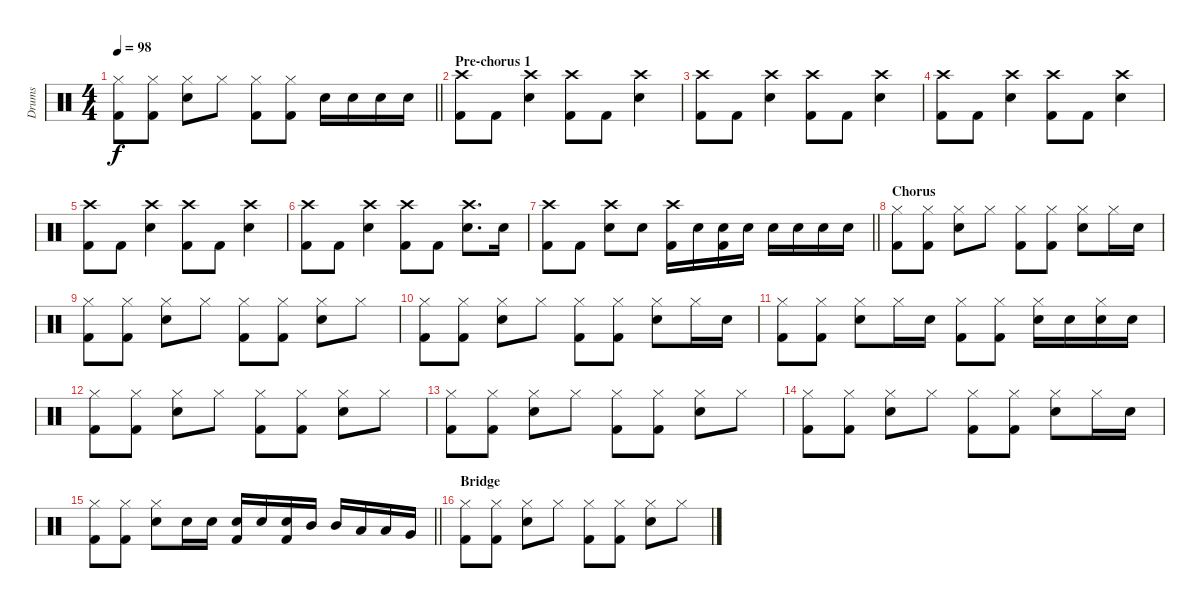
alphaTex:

\track ("Drums" "Drums") {instrument percussion}
\staff {score}
\articulation defaults
\ts (4 4)
\tempo 98
\clef neutral
\barLineRight lightlight
\ks c
("Hi-Hat (closed)" "Kick (hit) 2").8{dy f} ("Hi-Hat (closed)" "Kick (hit) 2").8 ("Hi-Hat (closed)" "Electric Snare (hit)").8 "Hi-Hat (closed)".8 ("Hi-Hat (closed)" "Kick (hit) 2").8 ("Hi-Hat (closed)" "Kick (hit) 2").8 "Electric Snare (hit)".16 "Electric Snare (hit)".16 "Electric Snare (hit)".16 "Electric Snare (hit)".16 |
\section ("" "Pre-chorus 1")
("Crash high (hit)" "Kick (hit) 2").8 "Kick (hit) 2".8 ("Crash high (hit)" "Electric Snare (hit)").4 ("Crash high (hit)" "Kick (hit) 2").8 "Kick (hit) 2".8 ("Crash high (hit)" "Electric Snare (hit)").4 |
("Crash high (hit)" "Kick (hit) 2").8 "Kick (hit) 2".8 ("Crash high (hit)" "Electric Snare (hit)").4 ("Crash high (hit)" "Kick (hit) 2").8 "Kick (hit) 2".8 ("Crash high (hit)" "Electric Snare (hit)").4 |
("Crash high (hit)" "Kick (hit) 2").8 "Kick (hit) 2".8 ("Crash high (hit)" "Electric Snare (hit)").4 ("Crash high (hit)" "Kick (hit) 2").8 "Kick (hit) 2".8 ("Crash high (hit)" "Electric Snare (hit)").4 |
("Crash high (hit)" "Kick (hit) 2").8 "Kick (hit) 2".8 ("Crash high (hit)" "Electric Snare (hit)").4 ("Crash high (hit)" "Kick (hit) 2").8 "Kick (hit) 2".8 ("Crash high (hit)" "Electric Snare (hit)").4 |
("Crash high (hit)" "Kick (hit) 2").8 "Kick (hit) 2".8 ("Crash high (hit)" "Electric Snare (hit)").4 ("Crash high (hit)" "Kick (hit) 2").8 "Kick (hit) 2".8 ("Crash high (hit)" "Electric Snare (hit)").8{d} "Electric Snare (hit)".16 |
\barLineRight lightlight
("Crash high (hit)" "Kick (hit) 2").8 "Kick (hit) 2".8 ("Crash high (hit)" "Electric Snare (hit)").8 "Electric Snare (hit)".8 ("Crash high (hit)" "Kick (hit) 2").16 "Electric Snare (hit)".16 ("Electric Snare (hit)" "Kick (hit) 2").16 "Electric Snare (hit)".16 "Electric Snare (hit)".16 "Electric Snare (hit)".16 "Electric Snare (hit)".16 "Electric Snare (hit)".16 |
\section ("" "Chorus")
("Hi-Hat (closed)" "Kick (hit) 2").8 ("Hi-Hat (closed)" "Kick (hit) 2").8 ("Hi-Hat (closed)" "Electric Snare (hit)").8 "Hi-Hat (closed)".8 ("Hi-Hat (closed)" "Kick (hit) 2").8 ("Hi-Hat (closed)" "Kick (hit) 2").8 ("Hi-Hat (closed)" "Electric Snare (hit)").8 "Hi-Hat (closed)".16 "Electric Snare (hit)".16 |
("Hi-Hat (closed)" "Kick (hit) 2").8 ("Hi-Hat (closed)" "Kick (hit) 2").8 ("Hi-Hat (closed)" "Electric Snare (hit)").8 "Hi-Hat (closed)".8 ("Hi-Hat (closed)" "Kick (hit) 2").8 ("Hi-Hat (closed)" "Kick (hit) 2").8 ("Hi-Hat (closed)" "Electric Snare (hit)").8 "Hi-Hat (closed)".8 |
("Hi-Hat (closed)" "Kick (hit) 2").8 ("Hi-Hat (closed)" "Kick (hit) 2").8 ("Hi-Hat (closed)" "Electric Snare (hit)").8 "Hi-Hat (closed)".8 ("Hi-Hat (closed)" "Kick (hit) 2").8 ("Hi-Hat (closed)" "Kick (hit) 2").8 ("Hi-Hat (closed)" "Electric Snare (hit)").8 "Hi-Hat (closed)".16 "Electric Snare (hit)".16 |
("Hi-Hat (closed)" "Kick (hit) 2").8 ("Hi-Hat (closed)" "Kick (hit) 2").8 ("Hi-Hat (closed)" "Electric Snare (hit)").8 "Hi-Hat (closed)".16 "Electric Snare (hit)".16 ("Hi-Hat (closed)" "Kick (hit) 2").8 ("Hi-Hat (closed)" "Kick (hit) 2").8 ("Hi-Hat (closed)" "Electric Snare (hit)").16 "Electric Snare (hit)".16 ("Hi-Hat (closed)" "Electric Snare (hit)").16 "Electric Snare (hit)".16 |
("Hi-Hat (closed)" "Kick (hit) 2").8 ("Hi-Hat (closed)" "Kick (hit) 2").8 ("Hi-Hat (closed)" "Electric Snare (hit)").8 "Hi-Hat (closed)".8 ("Hi-Hat (closed)" "Kick (hit) 2").8 ("Hi-Hat (closed)" "Kick (hit) 2").8 ("Hi-Hat (closed)" "Electric Snare (hit)").8 "Hi-Hat (closed)".8 |
("Hi-Hat (closed)" "Kick (hit) 2").8 ("Hi-Hat (closed)" "Kick (hit) 2").8 ("Hi-Hat (closed)" "Electric Snare (hit)").8 "Hi-Hat (closed)".8 ("Hi-Hat (closed)" "Kick (hit) 2").8 ("Hi-Hat (closed)" "Kick (hit) 2").8 ("Hi-Hat (closed)" "Electric Snare (hit)").8 "Hi-Hat (closed)".8 |
("Hi-Hat (closed)" "Kick (hit) 2").8 ("Hi-Hat (closed)" "Kick (hit) 2").8 ("Hi-Hat (closed)" "Electric Snare (hit)").8 "Hi-Hat (closed)".8 ("Hi-Hat (closed)" "Kick (hit) 2").8 ("Hi-Hat (closed)" "Kick (hit) 2").8 ("Hi-Hat (closed)" "Electric Snare (hit)").8 "Hi-Hat (closed)".16 "Electric Snare (hit)".16 |
\barLineRight lightlight
("Hi-Hat (closed)" "Kick (hit) 2").8 ("Hi-Hat (closed)" "Kick (hit) 2").8 ("Hi-Hat (closed)" "Electric Snare (hit)").8 "Electric Snare (hit)".16 "Electric Snare (hit)".16 ("Electric Snare (hit)" "Kick (hit) 2").16 "Electric Snare (hit)".16 ("Electric Snare (hit)" "Kick (hit) 2").16 "Mid Tom (hit)".16 "Mid Tom (hit)".16 "Low Tom (hit)".16 "Low Tom (hit)".16 "Very Low Tom (hit)".16 |
\section ("" "Bridge")
("Hi-Hat (closed)" "Kick (hit) 2").8 ("Hi-Hat (closed)" "Kick (hit) 2").8 ("Hi-Hat (closed)" "Electric Snare (hit)").8 "Hi-Hat (closed)".8 ("Hi-Hat (closed)" "Kick (hit) 2").8 ("Hi-Hat (closed)" "Kick (hit) 2").8 ("Hi-Hat (closed)" "Electric Snare (hit)").8 "Hi-Hat (closed)".8
